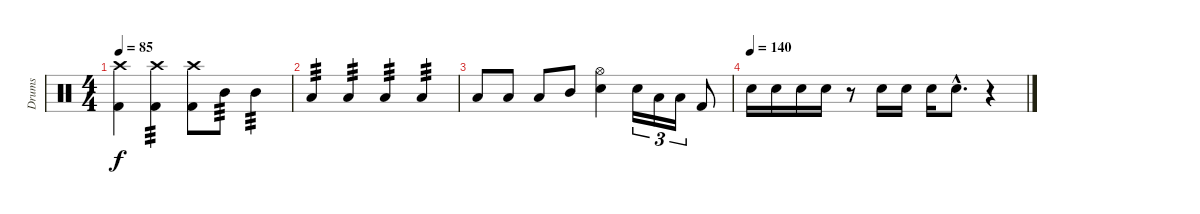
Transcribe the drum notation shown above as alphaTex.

\track ("Drums" "Drums") {instrument percussion}
\staff {score}
\articulation defaults
\ts (4 4)
\tempo 85
\clef neutral
\ks c
("Crash high (hit)" "Kick (hit) 2").4{dy f} ("Crash high (hit)" "Kick (hit) 2").4{tp 3} ("Crash high (hit)" "Kick (hit) 2").8 "Mid Tom (hit)".8{tp 3} "Mid Tom (hit)".4{tp 3} |
"Low Tom (hit)".4{tp 3} "Low Tom (hit)".4{tp 3} "Low Floor Tom (hit)".4{tp 3} "Low Floor Tom (hit)".4{tp 3} |
"Low Floor Tom (hit)".8 "Low Tom (hit)".8 "Low Tom (hit)".8 "Mid Tom (hit)".8 ("Hi-Hat (open)" "Snare (hit) 2").4 "Snare (hit) 2".16{tu (3 2)} "Low Tom (hit)".16{tu (3 2)} "Low Floor Tom (hit)".16{tu (3 2)} "Kick (hit) 2".8 |
\tempo (140)
"Snare (hit) 2".16 "Snare (hit) 2".16 "Snare (hit) 2".16 "Snare (hit) 2".16 r.8 "Snare (hit) 2".16 "Snare (hit) 2".16 "Snare (hit) 2".16 "Snare (hit) 2"{hac}.8{d} r.4
